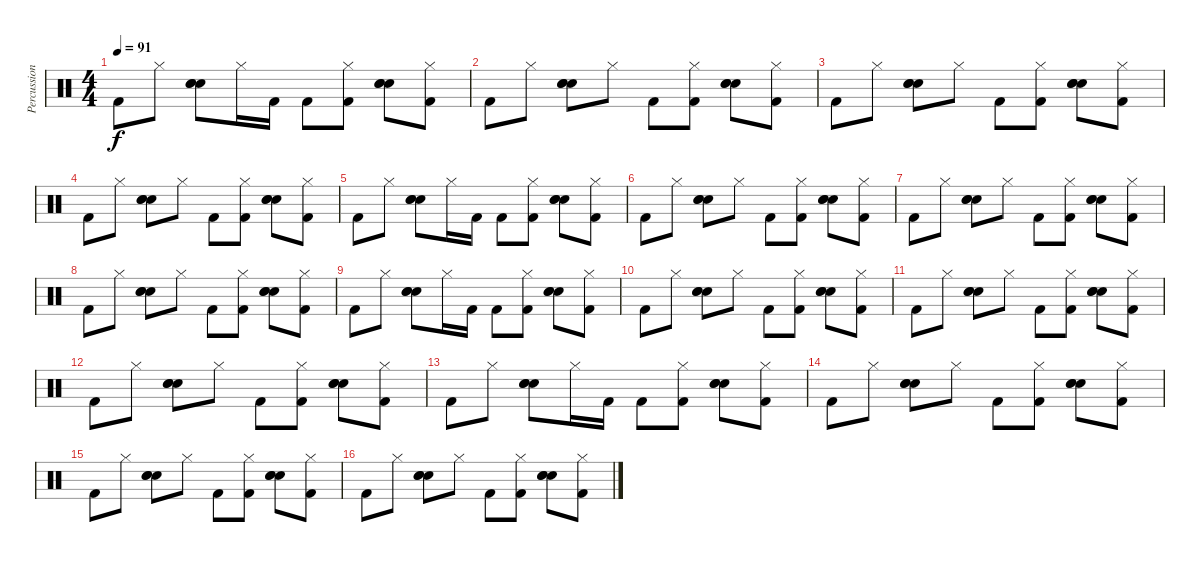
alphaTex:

\track ("Percussion" "Percussion") {instrument percussion}
\staff {score}
\articulation defaults
\ts (4 4)
\tempo 91
\clef neutral
\ks c "Kick (hit) 2".8{dy f} "Hi-Hat (closed)".8
("Hand Clap (hit)" "Electric Snare (hit)" "Snare (hit) 2").8 "Hi-Hat (closed)".16 "Kick (hit) 2".16 "Kick (hit) 2".8 ("Hi-Hat (closed)" "Kick (hit) 2").8 ("Hand Clap (hit)" "Electric Snare (hit)" "Snare (hit) 2").8 ("Hi-Hat (closed)" "Kick (hit) 2").8 |
"Kick (hit) 2".8 "Hi-Hat (closed)".8 ("Hand Clap (hit)" "Electric Snare (hit)" "Snare (hit) 2").8 "Hi-Hat (closed)".8 "Kick (hit) 2".8 ("Hi-Hat (closed)" "Kick (hit) 2").8 ("Hand Clap (hit)" "Electric Snare (hit)" "Snare (hit) 2").8 ("Hi-Hat (closed)" "Kick (hit) 2").8 |
"Kick (hit) 2".8 "Hi-Hat (closed)".8 ("Hand Clap (hit)" "Electric Snare (hit)" "Snare (hit) 2").8 "Hi-Hat (closed)".8 "Kick (hit) 2".8 ("Hi-Hat (closed)" "Kick (hit) 2").8 ("Hand Clap (hit)" "Electric Snare (hit)" "Snare (hit) 2").8 ("Hi-Hat (closed)" "Kick (hit) 2").8 |
"Kick (hit) 2".8 "Hi-Hat (closed)".8 ("Hand Clap (hit)" "Electric Snare (hit)" "Snare (hit) 2").8 "Hi-Hat (closed)".8 "Kick (hit) 2".8 ("Hi-Hat (closed)" "Kick (hit) 2").8 ("Hand Clap (hit)" "Electric Snare (hit)" "Snare (hit) 2").8 ("Hi-Hat (closed)" "Kick (hit) 2").8 |
"Kick (hit) 2".8 "Hi-Hat (closed)".8 ("Hand Clap (hit)" "Electric Snare (hit)" "Snare (hit) 2").8 "Hi-Hat (closed)".16 "Kick (hit) 2".16 "Kick (hit) 2".8 ("Hi-Hat (closed)" "Kick (hit) 2").8 ("Hand Clap (hit)" "Electric Snare (hit)" "Snare (hit) 2").8 ("Hi-Hat (closed)" "Kick (hit) 2").8 |
"Kick (hit) 2".8 "Hi-Hat (closed)".8 ("Hand Clap (hit)" "Electric Snare (hit)" "Snare (hit) 2").8 "Hi-Hat (closed)".8 "Kick (hit) 2".8 ("Hi-Hat (closed)" "Kick (hit) 2").8 ("Hand Clap (hit)" "Electric Snare (hit)" "Snare (hit) 2").8 ("Hi-Hat (closed)" "Kick (hit) 2").8 |
"Kick (hit) 2".8 "Hi-Hat (closed)".8 ("Hand Clap (hit)" "Electric Snare (hit)" "Snare (hit) 2").8 "Hi-Hat (closed)".8 "Kick (hit) 2".8 ("Hi-Hat (closed)" "Kick (hit) 2").8 ("Hand Clap (hit)" "Electric Snare (hit)" "Snare (hit) 2").8 ("Hi-Hat (closed)" "Kick (hit) 2").8 |
"Kick (hit) 2".8 "Hi-Hat (closed)".8 ("Hand Clap (hit)" "Electric Snare (hit)" "Snare (hit) 2").8 "Hi-Hat (closed)".8 "Kick (hit) 2".8 ("Hi-Hat (closed)" "Kick (hit) 2").8 ("Hand Clap (hit)" "Electric Snare (hit)" "Snare (hit) 2").8 ("Hi-Hat (closed)" "Kick (hit) 2").8 |
"Kick (hit) 2".8 "Hi-Hat (closed)".8 ("Hand Clap (hit)" "Electric Snare (hit)" "Snare (hit) 2").8 "Hi-Hat (closed)".16 "Kick (hit) 2".16 "Kick (hit) 2".8 ("Hi-Hat (closed)" "Kick (hit) 2").8 ("Hand Clap (hit)" "Electric Snare (hit)" "Snare (hit) 2").8 ("Hi-Hat (closed)" "Kick (hit) 2").8 |
"Kick (hit) 2".8 "Hi-Hat (closed)".8 ("Hand Clap (hit)" "Electric Snare (hit)" "Snare (hit) 2").8 "Hi-Hat (closed)".8 "Kick (hit) 2".8 ("Hi-Hat (closed)" "Kick (hit) 2").8 ("Hand Clap (hit)" "Electric Snare (hit)" "Snare (hit) 2").8 ("Hi-Hat (closed)" "Kick (hit) 2").8 |
"Kick (hit) 2".8 "Hi-Hat (closed)".8 ("Hand Clap (hit)" "Electric Snare (hit)" "Snare (hit) 2").8 "Hi-Hat (closed)".8 "Kick (hit) 2".8 ("Hi-Hat (closed)" "Kick (hit) 2").8 ("Hand Clap (hit)" "Electric Snare (hit)" "Snare (hit) 2").8 ("Hi-Hat (closed)" "Kick (hit) 2").8 |
"Kick (hit) 2".8 "Hi-Hat (closed)".8 ("Hand Clap (hit)" "Electric Snare (hit)" "Snare (hit) 2").8 "Hi-Hat (closed)".8 "Kick (hit) 2".8 ("Hi-Hat (closed)" "Kick (hit) 2").8 ("Hand Clap (hit)" "Electric Snare (hit)" "Snare (hit) 2").8 ("Hi-Hat (closed)" "Kick (hit) 2").8 |
"Kick (hit) 2".8 "Hi-Hat (closed)".8 ("Hand Clap (hit)" "Electric Snare (hit)" "Snare (hit) 2").8 "Hi-Hat (closed)".16 "Kick (hit) 2".16 "Kick (hit) 2".8 ("Hi-Hat (closed)" "Kick (hit) 2").8 ("Hand Clap (hit)" "Electric Snare (hit)" "Snare (hit) 2").8 ("Hi-Hat (closed)" "Kick (hit) 2").8 |
"Kick (hit) 2".8 "Hi-Hat (closed)".8 ("Hand Clap (hit)" "Electric Snare (hit)" "Snare (hit) 2").8 "Hi-Hat (closed)".8 "Kick (hit) 2".8 ("Hi-Hat (closed)" "Kick (hit) 2").8 ("Hand Clap (hit)" "Electric Snare (hit)" "Snare (hit) 2").8 ("Hi-Hat (closed)" "Kick (hit) 2").8 |
"Kick (hit) 2".8 "Hi-Hat (closed)".8 ("Hand Clap (hit)" "Electric Snare (hit)" "Snare (hit) 2").8 "Hi-Hat (closed)".8 "Kick (hit) 2".8 ("Hi-Hat (closed)" "Kick (hit) 2").8 ("Hand Clap (hit)" "Electric Snare (hit)" "Snare (hit) 2").8 ("Hi-Hat (closed)" "Kick (hit) 2").8 |
"Kick (hit) 2".8 "Hi-Hat (closed)".8 ("Hand Clap (hit)" "Electric Snare (hit)" "Snare (hit) 2").8 "Hi-Hat (closed)".8 "Kick (hit) 2".8 ("Hi-Hat (closed)" "Kick (hit) 2").8 ("Hand Clap (hit)" "Electric Snare (hit)" "Snare (hit) 2").8 ("Hi-Hat (closed)" "Kick (hit) 2").8
